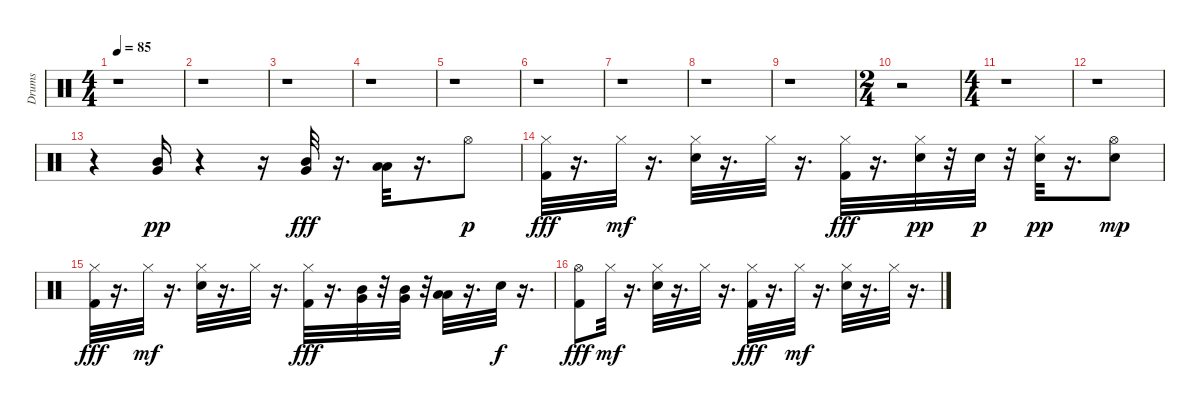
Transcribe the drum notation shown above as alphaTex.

\track ("Drums" "Drums") {instrument percussion}
\staff {score}
\articulation defaults
\ts (4 4)
\tempo 85
\clef neutral
\ks c
r.1{dy pp} |
r.1 |
r.1 |
r.1 |
r.1 |
r.1 |
r.1 |
r.1 |
r.1 |
\ts (2 4)
r.2 |
\ts (4 4)
r.1 |
r.1 |
r.4 ("Mid Tom (hit)" "Very Low Tom (hit)").16 r.4 r.16 ("Mid Tom (hit)" "Very Low Tom (hit)").32{dy fff} r.16{d} ("Low Tom (hit)" "Low Floor Tom (hit)").32 r.16{d} "Hi-Hat (open)".8{dy p} |
("Hi-Hat (closed)" "Kick (hit) 2").32{dy fff} r.16{d} "Hi-Hat (closed)".32{dy mf} r.16{d} ("Hi-Hat (closed)" "Electric Snare (hit)").32 r.16{d} "Hi-Hat (closed)".32 r.16{d} ("Hi-Hat (closed)" "Kick (hit) 2").32{dy fff} r.16{d} ("Hi-Hat (closed)" "Snare (hit) 2").32{dy pp} r.32 "Snare (hit) 2".32{dy p} r.32 ("Hi-Hat (closed)" "Snare (hit) 2").32{dy pp} r.16{d} ("Hi-Hat (open)" "Electric Snare (hit)").8{dy mp} |
("Hi-Hat (closed)" "Kick (hit) 2").32{dy fff} r.16{d} "Hi-Hat (closed)".32{dy mf} r.16{d} ("Hi-Hat (closed)" "Electric Snare (hit)").32 r.16{d} "Hi-Hat (closed)".32 r.16{d} ("Hi-Hat (closed)" "Kick (hit) 2").32{dy fff} r.16{d} ("Mid Tom (hit)" "Very Low Tom (hit)").32 r.32 ("Mid Tom (hit)" "Very Low Tom (hit)").32 r.32 ("Low Tom (hit)" "Low Floor Tom (hit)").32 r.16{d} "Snare (hit) 2".32{dy f} r.16{d} |
("Hi-Hat (open)" "Kick (hit) 2").8{dy fff} "Hi-Hat (closed)".32{dy mf} r.16{d} ("Hi-Hat (closed)" "Electric Snare (hit)").32 r.16{d} "Hi-Hat (closed)".32 r.16{d} ("Hi-Hat (closed)" "Kick (hit) 2").32{dy fff} r.16{d} "Hi-Hat (closed)".32{dy mf} r.16{d} ("Hi-Hat (closed)" "Electric Snare (hit)").32 r.16{d} "Hi-Hat (closed)".32 r.16{d}
